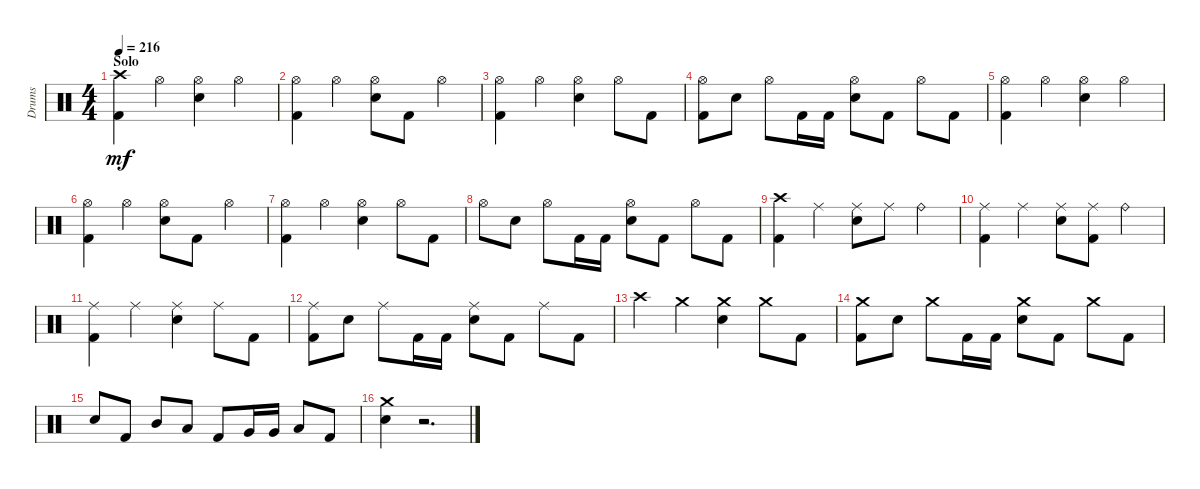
\track ("Drums" "Drums") {instrument percussion}
\staff {score}
\articulation defaults
\ts (4 4)
\section ("" "Solo")
\tempo 216
\clef neutral
\ks aminor
("Crash high (hit)" "Kick (hit) 2").4{dy mf} "Hi-Hat (open)".4 ("Hi-Hat (open)" "Snare (hit) 2").4 "Hi-Hat (open)".4 |
("Hi-Hat (open)" "Kick (hit) 2").4 "Hi-Hat (open)".4 ("Snare (hit) 2" "Hi-Hat (open)").8 "Kick (hit) 2".8 "Hi-Hat (open)".4 |
("Hi-Hat (open)" "Kick (hit) 2").4 "Hi-Hat (open)".4 ("Hi-Hat (open)" "Snare (hit) 2").4 "Hi-Hat (open)".8 "Kick (hit) 2".8 |
("Kick (hit) 2" "Hi-Hat (open)").8 "Snare (hit) 2".8 "Hi-Hat (open)".8 "Kick (hit) 2".16 "Kick (hit) 2".16 ("Snare (hit) 2" "Hi-Hat (open)").8 "Kick (hit) 2".8 "Hi-Hat (open)".8 "Kick (hit) 2".8 |
("Kick (hit) 2" "Hi-Hat (open)").4 "Hi-Hat (open)".4 ("Hi-Hat (open)" "Snare (hit) 2").4 "Hi-Hat (open)".4 |
("Kick (hit) 2" "Hi-Hat (open)").4 "Hi-Hat (open)".4 ("Snare (hit) 2" "Hi-Hat (open)").8 "Kick (hit) 2".8 "Hi-Hat (open)".4 |
("Hi-Hat (open)" "Kick (hit) 2").4 "Hi-Hat (open)".4 ("Snare (hit) 2" "Hi-Hat (open)").4 "Hi-Hat (open)".8 "Kick (hit) 2".8 |
"Hi-Hat (open)".8 "Snare (hit) 2".8 "Hi-Hat (open)".8 "Kick (hit) 2".16 "Kick (hit) 2".16 ("Hi-Hat (open)" "Snare (hit) 2").8 "Kick (hit) 2".8 "Hi-Hat (open)".8 "Kick (hit) 2".8 |
("Kick (hit) 2" "Crash high (hit)").4 "Ride (middle)".4 ("Snare (hit) 2" "Ride (middle)").8 "Ride (middle)".8 "Ride (bell)".4 |
("Ride (middle)" "Kick (hit) 2").4 "Ride (middle)".4 ("Ride (middle)" "Snare (hit) 2").8 ("Kick (hit) 2" "Ride (middle)").8 "Ride (bell)".4 |
("Kick (hit) 2" "Ride (middle)").4 "Ride (middle)".4 ("Snare (hit) 2" "Ride (middle)").4 "Ride (middle)".8 "Kick (hit) 2".8 |
("Ride (middle)" "Kick (hit) 2").8 "Snare (hit) 2".8 "Ride (middle)".8 "Kick (hit) 2".16 "Kick (hit) 2".16 ("Ride (middle)" "Snare (hit) 2").8 "Kick (hit) 2".8 "Ride (middle)".8 "Kick (hit) 2".8 |
"Crash high (hit)".4 "Crash medium (hit)".4 ("Crash medium (hit)" "Snare (hit) 2").4 "Crash medium (hit)".8 "Kick (hit) 2".8 |
("Crash medium (hit)" "Kick (hit) 2").8 "Snare (hit) 2".8 "Crash medium (hit)".8 "Kick (hit) 2".16 "Kick (hit) 2".16 ("Snare (hit) 2" "Crash medium (hit)").8 "Kick (hit) 2".8 "Crash medium (hit)".8 "Kick (hit) 2".8 |
"Snare (hit) 2".8 "Kick (hit) 2".8 "Mid Tom (hit)".8 "Low Tom (hit)".8 "Kick (hit) 2".8 "Very Low Tom (hit)".16 "Very Low Tom (hit)".16 "Low Floor Tom (hit)".8 "Kick (hit) 2".8 |
("Snare (hit) 2" "Crash medium (hit)").4 r.2{d}
